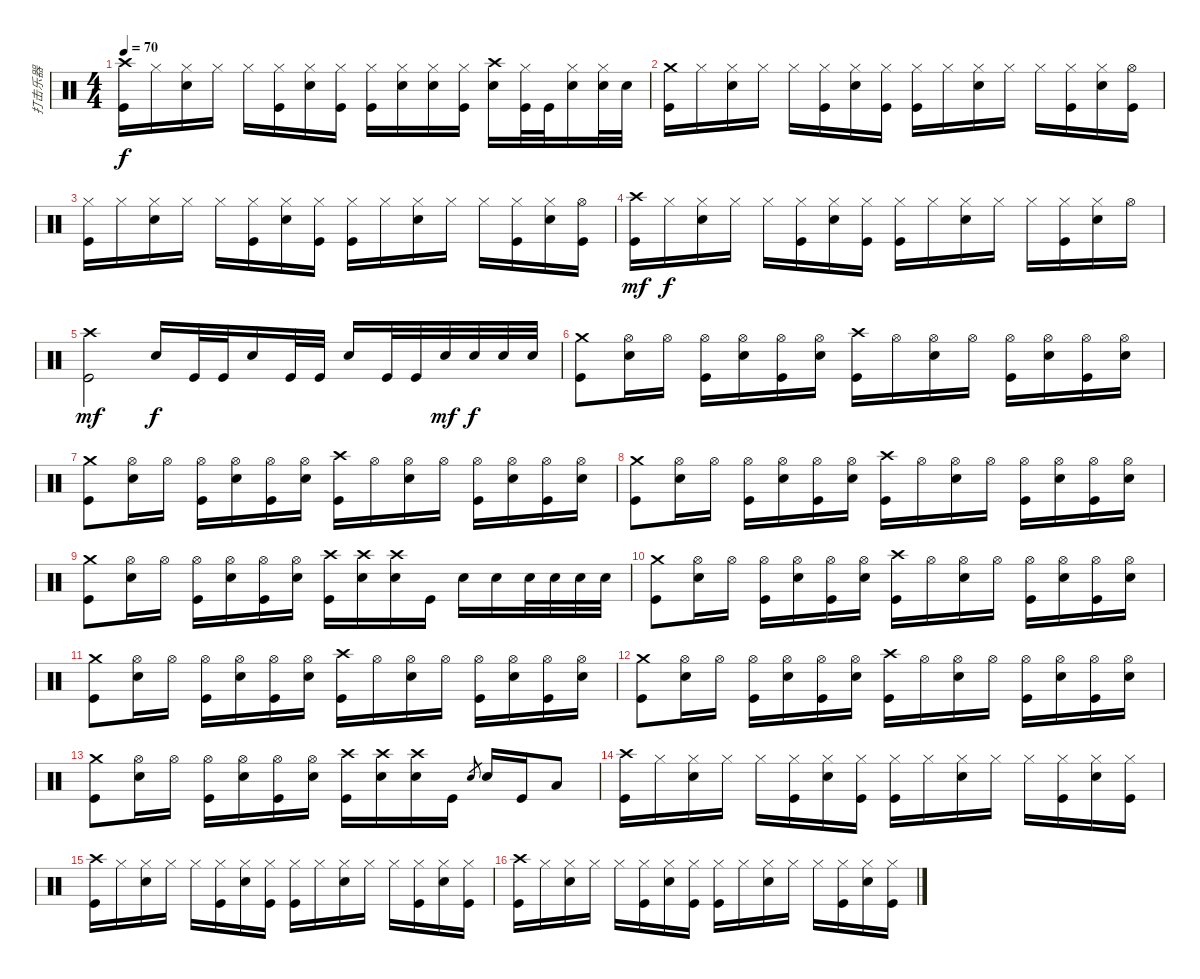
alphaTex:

\track ("打击乐器" "打击乐器") {instrument percussion}
\staff {score}
\articulation defaults
\ts (4 4)
\tempo 70
\clef neutral
\ks c
("Crash high (hit)" "Kick (hit)").16{dy f} "Hi-Hat (closed)".16 ("Hi-Hat (closed)" "Electric Snare (hit)").16 "Hi-Hat (closed)".16 "Hi-Hat (closed)".16 ("Hi-Hat (closed)" "Kick (hit)").16 ("Hi-Hat (closed)" "Electric Snare (hit)").16 ("Hi-Hat (closed)" "Kick (hit)").16 ("Hi-Hat (closed)" "Kick (hit)").16 ("Hi-Hat (closed)" "Electric Snare (hit)").16 ("Hi-Hat (closed)" "Electric Snare (hit)").16 ("Hi-Hat (closed)" "Kick (hit)").16 ("Crash high (hit)" "Electric Snare (hit)").16 ("Hi-Hat (closed)" "Kick (hit)").32 "Kick (hit)".32 ("Hi-Hat (closed)" "Electric Snare (hit)").16 ("Hi-Hat (closed)" "Electric Snare (hit)").32 "Electric Snare (hit)".32 |
("Crash medium (hit)" "Kick (hit)").16 "Hi-Hat (closed)".16 ("Hi-Hat (closed)" "Electric Snare (hit)").16 "Hi-Hat (closed)".16 "Hi-Hat (closed)".16 ("Hi-Hat (closed)" "Kick (hit)").16 ("Hi-Hat (closed)" "Electric Snare (hit)").16 ("Hi-Hat (closed)" "Kick (hit)").16 ("Hi-Hat (closed)" "Kick (hit)").16 "Hi-Hat (closed)".16 ("Hi-Hat (closed)" "Electric Snare (hit)").16 "Hi-Hat (closed)".16 "Hi-Hat (closed)".16 ("Hi-Hat (closed)" "Kick (hit)").16 ("Hi-Hat (closed)" "Electric Snare (hit)").16 ("Hi-Hat (open)" "Kick (hit)").16 |
("Hi-Hat (closed)" "Kick (hit)").16 "Hi-Hat (closed)".16 ("Hi-Hat (closed)" "Electric Snare (hit)").16 "Hi-Hat (closed)".16 "Hi-Hat (closed)".16 ("Hi-Hat (closed)" "Kick (hit)").16 ("Hi-Hat (closed)" "Electric Snare (hit)").16 ("Hi-Hat (closed)" "Kick (hit)").16 ("Hi-Hat (closed)" "Kick (hit)").16 "Hi-Hat (closed)".16 ("Hi-Hat (closed)" "Electric Snare (hit)").16 "Hi-Hat (closed)".16 "Hi-Hat (closed)".16 ("Hi-Hat (closed)" "Kick (hit)").16 ("Hi-Hat (closed)" "Electric Snare (hit)").16 ("Hi-Hat (open)" "Kick (hit)").16 |
("Crash high (hit)" "Kick (hit)").16{dy mf} "Hi-Hat (closed)".16{dy f} ("Hi-Hat (closed)" "Electric Snare (hit)").16 "Hi-Hat (closed)".16 "Hi-Hat (closed)".16 ("Hi-Hat (closed)" "Kick (hit)").16 ("Hi-Hat (closed)" "Electric Snare (hit)").16 ("Hi-Hat (closed)" "Kick (hit)").16 ("Hi-Hat (closed)" "Kick (hit)").16 "Hi-Hat (closed)".16 ("Hi-Hat (closed)" "Electric Snare (hit)").16 "Hi-Hat (closed)".16 "Hi-Hat (closed)".16 ("Hi-Hat (closed)" "Kick (hit)").16 ("Hi-Hat (closed)" "Electric Snare (hit)").16 "Hi-Hat (open)".16 |
("Crash high (hit)" "Kick (hit)").2{dy mf} "Electric Snare (hit)".16{dy f} "Kick (hit)".32 "Kick (hit)".32 "Electric Snare (hit)".16 "Kick (hit)".32 "Kick (hit)".32 "Electric Snare (hit)".16 "Kick (hit)".32 "Kick (hit)".32 "Electric Snare (hit)".32{dy mf} "Electric Snare (hit)".32{dy f} "Electric Snare (hit)".32 "Electric Snare (hit)".32 |
("Crash medium (hit)" "Kick (hit)").8 ("Hi-Hat (open)" "Electric Snare (hit)").16 "Hi-Hat (open)".16 ("Hi-Hat (open)" "Kick (hit)").16 ("Hi-Hat (open)" "Electric Snare (hit)").16 ("Hi-Hat (open)" "Kick (hit)").16 ("Hi-Hat (open)" "Electric Snare (hit)").16 ("Crash high (hit)" "Kick (hit)").16 "Hi-Hat (open)".16 ("Hi-Hat (open)" "Electric Snare (hit)").16 "Hi-Hat (open)".16 ("Hi-Hat (open)" "Kick (hit)").16 ("Hi-Hat (open)" "Electric Snare (hit)").16 ("Hi-Hat (open)" "Kick (hit)").16 ("Hi-Hat (open)" "Electric Snare (hit)").16 |
("Crash medium (hit)" "Kick (hit)").8 ("Hi-Hat (open)" "Electric Snare (hit)").16 "Hi-Hat (open)".16 ("Hi-Hat (open)" "Kick (hit)").16 ("Hi-Hat (open)" "Electric Snare (hit)").16 ("Hi-Hat (open)" "Kick (hit)").16 ("Hi-Hat (open)" "Electric Snare (hit)").16 ("Crash high (hit)" "Kick (hit)").16 "Hi-Hat (open)".16 ("Hi-Hat (open)" "Electric Snare (hit)").16 "Hi-Hat (open)".16 ("Hi-Hat (open)" "Kick (hit)").16 ("Hi-Hat (open)" "Electric Snare (hit)").16 ("Hi-Hat (open)" "Kick (hit)").16 ("Hi-Hat (open)" "Electric Snare (hit)").16 |
("Crash medium (hit)" "Kick (hit)").8 ("Hi-Hat (open)" "Electric Snare (hit)").16 "Hi-Hat (open)".16 ("Hi-Hat (open)" "Kick (hit)").16 ("Hi-Hat (open)" "Electric Snare (hit)").16 ("Hi-Hat (open)" "Kick (hit)").16 ("Hi-Hat (open)" "Electric Snare (hit)").16 ("Crash high (hit)" "Kick (hit)").16 "Hi-Hat (open)".16 ("Hi-Hat (open)" "Electric Snare (hit)").16 "Hi-Hat (open)".16 ("Hi-Hat (open)" "Kick (hit)").16 ("Hi-Hat (open)" "Electric Snare (hit)").16 ("Hi-Hat (open)" "Kick (hit)").16 ("Hi-Hat (open)" "Electric Snare (hit)").16 |
("Crash medium (hit)" "Kick (hit)").8 ("Hi-Hat (open)" "Electric Snare (hit)").16 "Hi-Hat (open)".16 ("Hi-Hat (open)" "Kick (hit)").16 ("Hi-Hat (open)" "Electric Snare (hit)").16 ("Hi-Hat (open)" "Kick (hit)").16 ("Hi-Hat (open)" "Electric Snare (hit)").16 ("Crash high (hit)" "Kick (hit)").16 ("Crash high (hit)" "Electric Snare (hit)").16 ("Crash high (hit)" "Electric Snare (hit)").16 "Kick (hit)".16 "Electric Snare (hit)".16 "Electric Snare (hit)".16 "Electric Snare (hit)".32 "Electric Snare (hit)".32 "Electric Snare (hit)".32 "Electric Snare (hit)".32 |
("Crash medium (hit)" "Kick (hit)").8 ("Hi-Hat (open)" "Electric Snare (hit)").16 "Hi-Hat (open)".16 ("Hi-Hat (open)" "Kick (hit)").16 ("Hi-Hat (open)" "Electric Snare (hit)").16 ("Hi-Hat (open)" "Kick (hit)").16 ("Hi-Hat (open)" "Electric Snare (hit)").16 ("Crash high (hit)" "Kick (hit)").16 "Hi-Hat (open)".16 ("Hi-Hat (open)" "Electric Snare (hit)").16 "Hi-Hat (open)".16 ("Hi-Hat (open)" "Kick (hit)").16 ("Hi-Hat (open)" "Electric Snare (hit)").16 ("Hi-Hat (open)" "Kick (hit)").16 ("Hi-Hat (open)" "Electric Snare (hit)").16 |
("Crash medium (hit)" "Kick (hit)").8 ("Hi-Hat (open)" "Electric Snare (hit)").16 "Hi-Hat (open)".16 ("Hi-Hat (open)" "Kick (hit)").16 ("Hi-Hat (open)" "Electric Snare (hit)").16 ("Hi-Hat (open)" "Kick (hit)").16 ("Hi-Hat (open)" "Electric Snare (hit)").16 ("Crash high (hit)" "Kick (hit)").16 "Hi-Hat (open)".16 ("Hi-Hat (open)" "Electric Snare (hit)").16 "Hi-Hat (open)".16 ("Hi-Hat (open)" "Kick (hit)").16 ("Hi-Hat (open)" "Electric Snare (hit)").16 ("Hi-Hat (open)" "Kick (hit)").16 ("Hi-Hat (open)" "Electric Snare (hit)").16 |
("Crash medium (hit)" "Kick (hit)").8 ("Hi-Hat (open)" "Electric Snare (hit)").16 "Hi-Hat (open)".16 ("Hi-Hat (open)" "Kick (hit)").16 ("Hi-Hat (open)" "Electric Snare (hit)").16 ("Hi-Hat (open)" "Kick (hit)").16 ("Hi-Hat (open)" "Electric Snare (hit)").16 ("Crash high (hit)" "Kick (hit)").16 "Hi-Hat (open)".16 ("Hi-Hat (open)" "Electric Snare (hit)").16 "Hi-Hat (open)".16 ("Hi-Hat (open)" "Kick (hit)").16 ("Hi-Hat (open)" "Electric Snare (hit)").16 ("Hi-Hat (open)" "Kick (hit)").16 ("Hi-Hat (open)" "Electric Snare (hit)").16 |
("Crash medium (hit)" "Kick (hit)").8 ("Hi-Hat (open)" "Electric Snare (hit)").16 "Hi-Hat (open)".16 ("Hi-Hat (open)" "Kick (hit)").16 ("Hi-Hat (open)" "Electric Snare (hit)").16 ("Hi-Hat (open)" "Kick (hit)").16 ("Hi-Hat (open)" "Electric Snare (hit)").16 ("Crash high (hit)" "Kick (hit)").16 ("Crash high (hit)" "Electric Snare (hit)").16 ("Crash high (hit)" "Electric Snare (hit)").16 "Kick (hit)".16 "Electric Snare (hit)".8{gr} "Electric Snare (hit)".16 "Kick (hit)".16 "Low Tom (hit)".8 |
("Crash high (hit)" "Kick (hit)").16 "Hi-Hat (closed)".16 ("Hi-Hat (closed)" "Electric Snare (hit)").16 "Hi-Hat (closed)".16 "Hi-Hat (closed)".16 ("Hi-Hat (closed)" "Kick (hit)").16 ("Hi-Hat (closed)" "Electric Snare (hit)").16 ("Hi-Hat (closed)" "Kick (hit)").16 ("Hi-Hat (closed)" "Kick (hit)").16 "Hi-Hat (closed)".16 ("Hi-Hat (closed)" "Electric Snare (hit)").16 "Hi-Hat (closed)".16 "Hi-Hat (closed)".16 ("Hi-Hat (closed)" "Kick (hit)").16 ("Hi-Hat (closed)" "Electric Snare (hit)").16 ("Hi-Hat (closed)" "Kick (hit)").16 |
("Crash high (hit)" "Kick (hit)").16 "Hi-Hat (closed)".16 ("Hi-Hat (closed)" "Electric Snare (hit)").16 "Hi-Hat (closed)".16 "Hi-Hat (closed)".16 ("Hi-Hat (closed)" "Kick (hit)").16 ("Hi-Hat (closed)" "Electric Snare (hit)").16 ("Hi-Hat (closed)" "Kick (hit)").16 ("Hi-Hat (closed)" "Kick (hit)").16 "Hi-Hat (closed)".16 ("Hi-Hat (closed)" "Electric Snare (hit)").16 "Hi-Hat (closed)".16 "Hi-Hat (closed)".16 ("Hi-Hat (closed)" "Kick (hit)").16 ("Hi-Hat (closed)" "Electric Snare (hit)").16 ("Hi-Hat (closed)" "Kick (hit)").16 |
("Crash high (hit)" "Kick (hit)").16 "Hi-Hat (closed)".16 ("Hi-Hat (closed)" "Electric Snare (hit)").16 "Hi-Hat (closed)".16 "Hi-Hat (closed)".16 ("Hi-Hat (closed)" "Kick (hit)").16 ("Hi-Hat (closed)" "Electric Snare (hit)").16 ("Hi-Hat (closed)" "Kick (hit)").16 ("Hi-Hat (closed)" "Kick (hit)").16 "Hi-Hat (closed)".16 ("Hi-Hat (closed)" "Electric Snare (hit)").16 "Hi-Hat (closed)".16 "Hi-Hat (closed)".16 ("Hi-Hat (closed)" "Kick (hit)").16 ("Hi-Hat (closed)" "Electric Snare (hit)").16 ("Hi-Hat (closed)" "Kick (hit)").16
